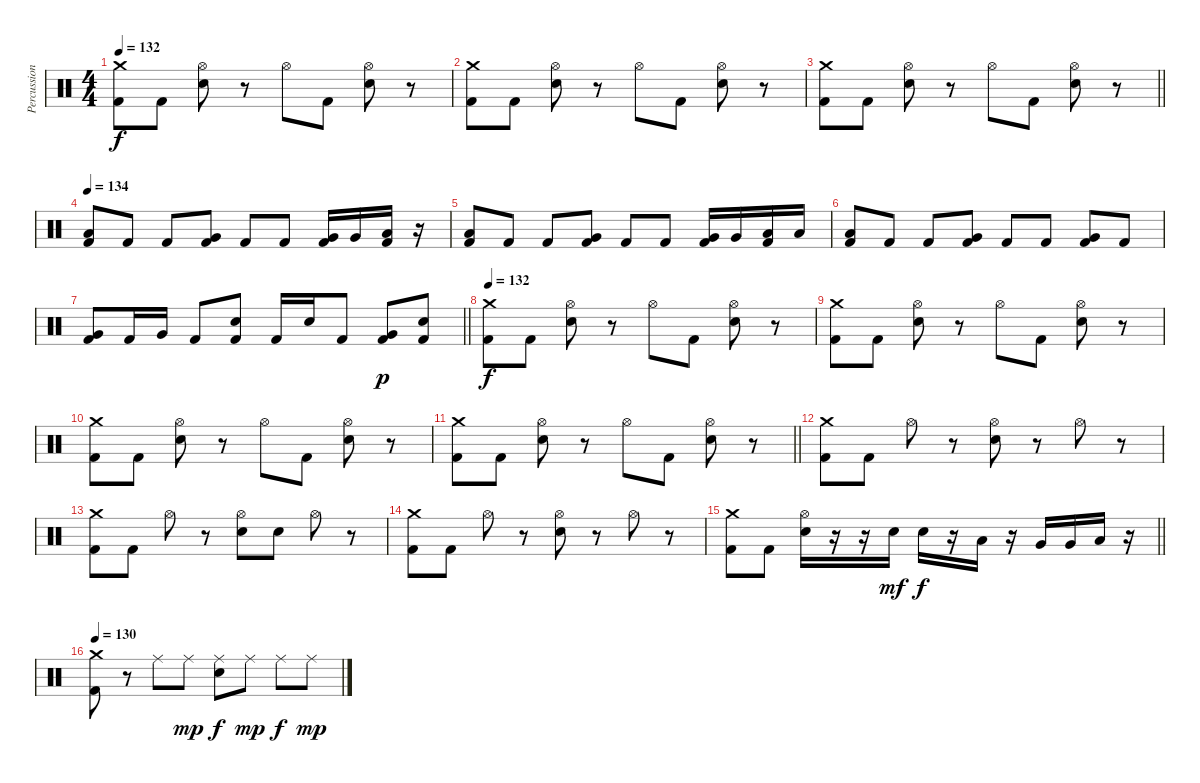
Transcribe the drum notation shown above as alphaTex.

\track ("Percussion" "Percussion") {instrument percussion}
\staff {score}
\articulation defaults
\ts (4 4)
\tempo 132
\clef neutral
\ks c
("Crash medium (hit)" "Kick (hit) 2").8{dy f} "Kick (hit) 2".8 ("Hi-Hat (open)" "Electric Snare (hit)").8 r.8 "Hi-Hat (open)".8 "Kick (hit) 2".8 ("Hi-Hat (open)" "Electric Snare (hit)").8 r.8 |
("Crash medium (hit)" "Kick (hit) 2").8 "Kick (hit) 2".8 ("Hi-Hat (open)" "Electric Snare (hit)").8 r.8 "Hi-Hat (open)".8 "Kick (hit) 2".8 ("Hi-Hat (open)" "Electric Snare (hit)").8 r.8 |
\barLineRight lightlight
("Crash medium (hit)" "Kick (hit) 2").8 "Kick (hit) 2".8 ("Hi-Hat (open)" "Electric Snare (hit)").8 r.8 "Hi-Hat (open)".8 "Kick (hit) 2".8 ("Hi-Hat (open)" "Electric Snare (hit)").8 r.8 |
\section ("" "")
\tempo 134
("Low Tom (hit)" "Kick (hit) 2").8 "Kick (hit) 2".8 "Kick (hit) 2".8 ("Very Low Tom (hit)" "Kick (hit) 2").8 "Kick (hit) 2".8 "Kick (hit) 2".8 ("Very Low Tom (hit)" "Kick (hit) 2").16 "Very Low Tom (hit)".16 ("Low Floor Tom (hit)" "Kick (hit) 2").16 r.16 |
("Low Floor Tom (hit)" "Kick (hit) 2").8 "Kick (hit) 2".8 "Kick (hit) 2".8 ("Very Low Tom (hit)" "Kick (hit) 2").8 "Kick (hit) 2".8 "Kick (hit) 2".8 ("Very Low Tom (hit)" "Kick (hit) 2").16 "Very Low Tom (hit)".16 ("Low Floor Tom (hit)" "Kick (hit) 2").16 "Low Floor Tom (hit)".16 |
("Low Floor Tom (hit)" "Kick (hit) 2").8 "Kick (hit) 2".8 "Kick (hit) 2".8 ("Very Low Tom (hit)" "Kick (hit) 2").8 "Kick (hit) 2".8 "Kick (hit) 2".8 ("Very Low Tom (hit)" "Kick (hit) 2").8 "Kick (hit) 2".8 |
\barLineRight lightlight
("Very Low Tom (hit)" "Kick (hit) 2").8 "Kick (hit) 2".16 "Very Low Tom (hit)".16 "Kick (hit) 2".8 ("Electric Snare (hit)" "Kick (hit) 2").8 "Kick (hit) 2".16 "Electric Snare (hit)".16 "Kick (hit) 2".8 ("Very Low Tom (hit)" "Kick (hit) 2").8{dy p} ("Electric Snare (hit)" "Kick (hit) 2").8 |
\section ("" "")
\tempo 132
("Crash medium (hit)" "Kick (hit) 2").8{dy f} "Kick (hit) 2".8 ("Hi-Hat (open)" "Electric Snare (hit)").8 r.8 "Hi-Hat (open)".8 "Kick (hit) 2".8 ("Hi-Hat (open)" "Electric Snare (hit)").8 r.8 |
("Crash medium (hit)" "Kick (hit) 2").8 "Kick (hit) 2".8 ("Hi-Hat (open)" "Electric Snare (hit)").8 r.8 "Hi-Hat (open)".8 "Kick (hit) 2".8 ("Hi-Hat (open)" "Electric Snare (hit)").8 r.8 |
("Crash medium (hit)" "Kick (hit) 2").8 "Kick (hit) 2".8 ("Hi-Hat (open)" "Electric Snare (hit)").8 r.8 "Hi-Hat (open)".8 "Kick (hit) 2".8 ("Hi-Hat (open)" "Electric Snare (hit)").8 r.8 |
\barLineRight lightlight
("Crash medium (hit)" "Kick (hit) 2").8 "Kick (hit) 2".8 ("Hi-Hat (open)" "Electric Snare (hit)").8 r.8 "Hi-Hat (open)".8 "Kick (hit) 2".8 ("Hi-Hat (open)" "Electric Snare (hit)").8 r.8 |
\section ("" "")
("Crash medium (hit)" "Kick (hit) 2").8 "Kick (hit) 2".8 "Hi-Hat (open)".8 r.8 ("Hi-Hat (open)" "Electric Snare (hit)").8 r.8 "Hi-Hat (open)".8 r.8 |
("Crash medium (hit)" "Kick (hit) 2").8 "Kick (hit) 2".8 "Hi-Hat (open)".8 r.8 ("Hi-Hat (open)" "Electric Snare (hit)").8 "Electric Snare (hit)".8 "Hi-Hat (open)".8 r.8 |
("Crash medium (hit)" "Kick (hit) 2").8 "Kick (hit) 2".8 "Hi-Hat (open)".8 r.8 ("Hi-Hat (open)" "Electric Snare (hit)").8 r.8 "Hi-Hat (open)".8 r.8 |
\barLineRight lightlight
("Crash medium (hit)" "Kick (hit) 2").8 "Kick (hit) 2".8 ("Hi-Hat (open)" "Electric Snare (hit)").16 r.16 r.16 "Electric Snare (hit)".16{dy mf} "Electric Snare (hit)".16{dy f} r.16 "Low Tom (hit)".16 r.16 "Very Low Tom (hit)".16 "Very Low Tom (hit)".16 "Low Floor Tom (hit)".16 r.16 |
\section ("" "")
\tempo 130
("Crash medium (hit)" "Kick (hit) 2").8 r.8 "Ride (middle)".8 "Ride (middle)".8{dy mp} ("Ride (middle)" "Electric Snare (hit)").8{dy f} "Ride (middle)".8{dy mp} "Ride (middle)".8{dy f} "Ride (middle)".8{dy mp}
